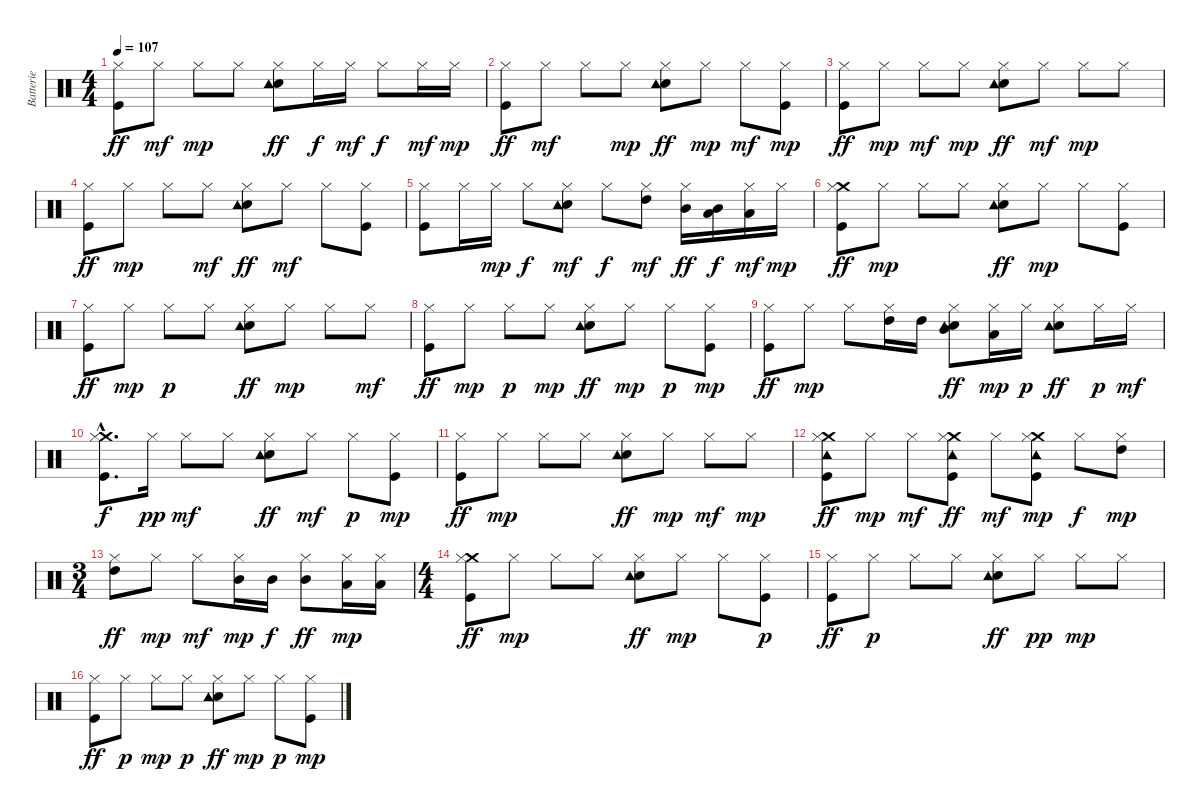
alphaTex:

\track ("Batterie" "Batterie") {instrument percussion}
\staff {score}
\articulation defaults
\ts (4 4)
\tempo 107
\clef neutral
\ks c
("Kick (hit)" "Hi-Hat (closed)").8{dy ff} "Hi-Hat (closed)".8{dy mf} "Hi-Hat (closed)".8{dy mp} "Hi-Hat (closed)".8 ("Snare (hit) 2" "Tambourine (hit)" "Hi-Hat (closed)").8{dy ff} "Hi-Hat (closed)".16{dy f} "Hi-Hat (closed)".16{dy mf} "Hi-Hat (closed)".8{dy f} "Hi-Hat (closed)".16{dy mf} "Hi-Hat (closed)".16{dy mp} |
("Kick (hit)" "Hi-Hat (closed)").8{dy ff} "Hi-Hat (closed)".8{dy mf} "Hi-Hat (closed)".8 "Hi-Hat (closed)".8{dy mp} ("Snare (hit) 2" "Tambourine (hit)" "Hi-Hat (closed)").8{dy ff} "Hi-Hat (closed)".8{dy mp} "Hi-Hat (closed)".8{dy mf} ("Kick (hit)" "Hi-Hat (closed)").8{dy mp} |
("Kick (hit)" "Hi-Hat (closed)").8{dy ff} "Hi-Hat (closed)".8{dy mp} "Hi-Hat (closed)".8{dy mf} "Hi-Hat (closed)".8{dy mp} ("Snare (hit) 2" "Tambourine (hit)" "Hi-Hat (closed)").8{dy ff} "Hi-Hat (closed)".8{dy mf} "Hi-Hat (closed)".8{dy mp} "Hi-Hat (closed)".8 |
("Hi-Hat (closed)" "Kick (hit)").8{dy ff} "Hi-Hat (closed)".8{dy mp} "Hi-Hat (closed)".8 "Hi-Hat (closed)".8{dy mf} ("Snare (hit) 2" "Tambourine (hit)" "Hi-Hat (closed)").8{dy ff} "Hi-Hat (closed)".8{dy mf} "Hi-Hat (closed)".8 ("Kick (hit)" "Hi-Hat (closed)").8 |
("Kick (hit)" "Hi-Hat (closed)").8 "Hi-Hat (closed)".16 "Hi-Hat (closed)".16{dy mp} "Hi-Hat (closed)".8{dy f} ("Snare (hit) 2" "Tambourine (hit)" "Hi-Hat (closed)").8{dy mf} "Hi-Hat (closed)".8{dy f} ("High Tom (hit)" "Hi-Hat (closed)").8{dy mf} ("Mid Tom (hit)" "Hi-Hat (closed)").16{dy ff} ("Low Tom (hit)" "Mid Tom (hit)").16{dy f} ("Low Tom (hit)" "Hi-Hat (closed)").16{dy mf} "Hi-Hat (closed)".16{dy mp} |
("Kick (hit)" "Crash medium (hit)" "Hi-Hat (closed)").8{dy ff} "Hi-Hat (closed)".8{dy mp} "Hi-Hat (closed)".8 "Hi-Hat (closed)".8 ("Snare (hit) 2" "Tambourine (hit)" "Hi-Hat (closed)").8{dy ff} "Hi-Hat (closed)".8{dy mp} "Hi-Hat (closed)".8 ("Kick (hit)" "Hi-Hat (closed)").8 |
("Kick (hit)" "Hi-Hat (closed)").8{dy ff} "Hi-Hat (closed)".8{dy mp} "Hi-Hat (closed)".8{dy p} "Hi-Hat (closed)".8 ("Snare (hit) 2" "Tambourine (hit)" "Hi-Hat (closed)").8{dy ff} "Hi-Hat (closed)".8{dy mp} "Hi-Hat (closed)".8 "Hi-Hat (closed)".8{dy mf} |
("Kick (hit)" "Hi-Hat (closed)").8{dy ff} "Hi-Hat (closed)".8{dy mp} "Hi-Hat (closed)".8{dy p} "Hi-Hat (closed)".8{dy mp} ("Snare (hit) 2" "Tambourine (hit)" "Hi-Hat (closed)").8{dy ff} "Hi-Hat (closed)".8{dy mp} "Hi-Hat (closed)".8{dy p} ("Kick (hit)" "Hi-Hat (closed)").8{dy mp} |
("Kick (hit)" "Hi-Hat (closed)").8{dy ff} "Hi-Hat (closed)".8{dy mp} "Hi-Hat (closed)".8 ("High Tom (hit)" "Hi-Hat (closed)").16 "High Tom (hit)".16 ("Mid Tom (hit)" "Snare (hit) 2" "Tambourine (hit)" "Hi-Hat (closed)").8{dy ff} ("Low Tom (hit)" "Hi-Hat (closed)").16{dy mp} "Hi-Hat (closed)".16{dy p} ("Snare (hit) 2" "Tambourine (hit)" "Hi-Hat (closed)").8{dy ff} "Hi-Hat (closed)".16{dy p} "Hi-Hat (closed)".16{dy mf} |
("Kick (hit)"{hac} "Crash medium (hit)"{hac} "Hi-Hat (closed)"{hac}).8{d dy f} "Hi-Hat (closed)".16{dy pp} "Hi-Hat (closed)".8{dy mf} "Hi-Hat (closed)".8 ("Snare (hit) 2" "Tambourine (hit)" "Hi-Hat (closed)").8{dy ff} "Hi-Hat (closed)".8{dy mf} "Hi-Hat (closed)".8{dy p} ("Kick (hit)" "Hi-Hat (closed)").8{dy mp} |
("Kick (hit)" "Hi-Hat (closed)").8{dy ff} "Hi-Hat (closed)".8{dy mp} "Hi-Hat (closed)".8 "Hi-Hat (closed)".8 ("Snare (hit) 2" "Tambourine (hit)" "Hi-Hat (closed)").8{dy ff} "Hi-Hat (closed)".8{dy mp} "Hi-Hat (closed)".8{dy mf} "Hi-Hat (closed)".8{dy mp} |
("Kick (hit)" "Tambourine (hit)" "Crash medium (hit)" "Hi-Hat (closed)").8{dy ff} "Hi-Hat (closed)".8{dy mp} "Hi-Hat (closed)".8{dy mf} ("Kick (hit)" "Tambourine (hit)" "Crash medium (hit)" "Hi-Hat (closed)").8{dy ff} "Hi-Hat (closed)".8{dy mf} ("Kick (hit)" "Tambourine (hit)" "Crash medium (hit)" "Hi-Hat (closed)").8{dy mp} "Hi-Hat (closed)".8{dy f} ("High Tom (hit)" "Hi-Hat (closed)").8{dy mp} |
\ts (3 4)
("High Tom (hit)" "Hi-Hat (closed)").8{dy ff} "Hi-Hat (closed)".8{dy mp} "Hi-Hat (closed)".8{dy mf} ("Mid Tom (hit)" "Hi-Hat (closed)").16{dy mp} "Mid Tom (hit)".16{dy f} ("Mid Tom (hit)" "Hi-Hat (closed)").8{dy ff} ("Low Tom (hit)" "Hi-Hat (closed)").16{dy mp} ("Low Tom (hit)" "Hi-Hat (closed)").16 |
\ts (4 4)
("Kick (hit)" "Crash medium (hit)" "Hi-Hat (closed)").8{dy ff} "Hi-Hat (closed)".8{dy mp} "Hi-Hat (closed)".8 "Hi-Hat (closed)".8 ("Snare (hit) 2" "Tambourine (hit)" "Hi-Hat (closed)").8{dy ff} "Hi-Hat (closed)".8{dy mp} "Hi-Hat (closed)".8 ("Kick (hit)" "Hi-Hat (closed)").8{dy p} |
("Kick (hit)" "Hi-Hat (closed)").8{dy ff} "Hi-Hat (closed)".8{dy p} "Hi-Hat (closed)".8 "Hi-Hat (closed)".8 ("Snare (hit) 2" "Tambourine (hit)" "Hi-Hat (closed)").8{dy ff} "Hi-Hat (closed)".8{dy pp} "Hi-Hat (closed)".8{dy mp} "Hi-Hat (closed)".8 |
("Kick (hit)" "Hi-Hat (closed)").8{dy ff} "Hi-Hat (closed)".8{dy p} "Hi-Hat (closed)".8{dy mp} "Hi-Hat (closed)".8{dy p} ("Snare (hit) 2" "Tambourine (hit)" "Hi-Hat (closed)").8{dy ff} "Hi-Hat (closed)".8{dy mp} "Hi-Hat (closed)".8{dy p} ("Kick (hit)" "Hi-Hat (closed)").8{dy mp}
